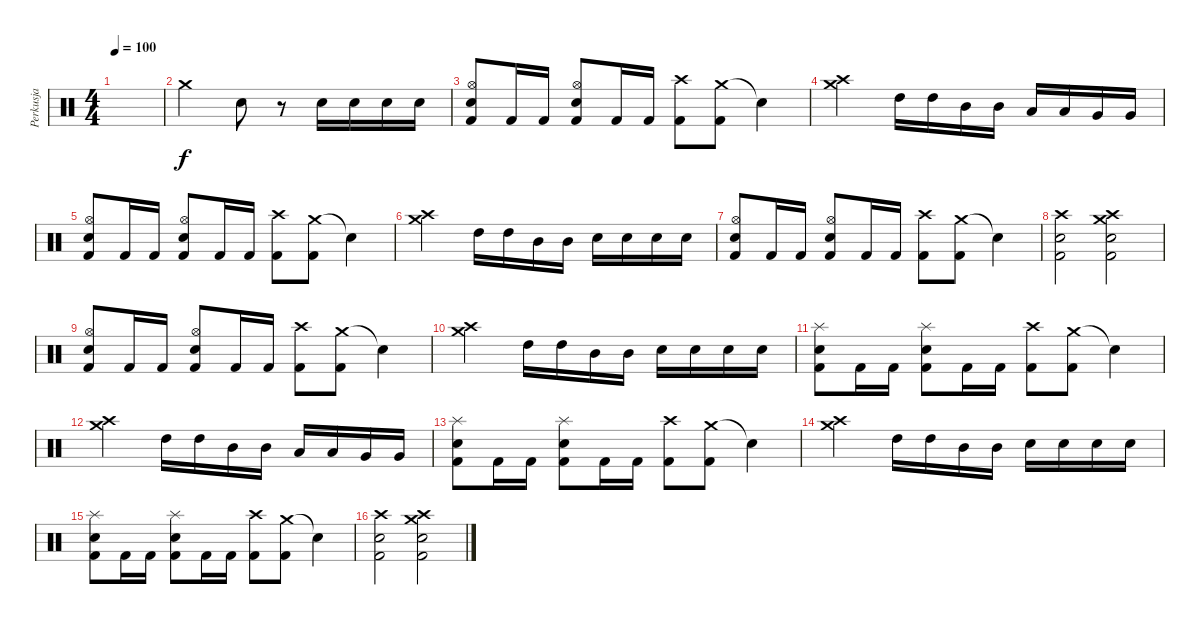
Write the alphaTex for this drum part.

\track ("Perkusja" "Perkusja") {instrument percussion}
\staff {score}
\articulation defaults
\ts (4 4)
\tempo 100
\clef neutral
\ks c
|
"Crash medium (hit)".2 "Electric Snare (hit)".8 r.8 "Electric Snare (hit)".16 "Electric Snare (hit)".16 "Electric Snare (hit)".16 "Electric Snare (hit)".16 |
("Hi-Hat (open)" "Electric Snare (hit)" "Kick (hit) 2").8 "Kick (hit) 2".16 "Kick (hit) 2".16 ("Hi-Hat (open)" "Electric Snare (hit)" "Kick (hit) 2").8 "Kick (hit) 2".16 "Kick (hit) 2".16 ("Crash high (hit)" "Kick (hit) 2").8 ("Crash medium (hit)" "Kick (hit) 2").8 "Snare (hit)"{t}.4 |
("Crash medium (hit)" "Crash high (hit)").2 "High Tom (hit)".16 "High Tom (hit)".16 "Mid Tom (hit)".16 "Mid Tom (hit)".16 "Low Tom (hit)".16 "Low Tom (hit)".16 "Very Low Tom (hit)".16 "Very Low Tom (hit)".16 |
("Hi-Hat (open)" "Electric Snare (hit)" "Kick (hit) 2").8 "Kick (hit) 2".16 "Kick (hit) 2".16 ("Hi-Hat (open)" "Electric Snare (hit)" "Kick (hit) 2").8 "Kick (hit) 2".16 "Kick (hit) 2".16 ("Crash high (hit)" "Kick (hit) 2").8 ("Crash medium (hit)" "Kick (hit) 2").8 "Snare (hit)"{t}.4 |
("Crash medium (hit)" "Crash high (hit)").2 "High Tom (hit)".16 "High Tom (hit)".16 "Mid Tom (hit)".16 "Mid Tom (hit)".16 "Electric Snare (hit)".16 "Electric Snare (hit)".16 "Electric Snare (hit)".16 "Electric Snare (hit)".16 |
("Hi-Hat (open)" "Electric Snare (hit)" "Kick (hit) 2").8 "Kick (hit) 2".16 "Kick (hit) 2".16 ("Hi-Hat (open)" "Electric Snare (hit)" "Kick (hit) 2").8 "Kick (hit) 2".16 "Kick (hit) 2".16 ("Crash high (hit)" "Kick (hit) 2").8 ("Crash medium (hit)" "Kick (hit) 2").8 "Snare (hit)"{t}.4 |
("Crash high (hit)" "Kick (hit) 2" "Electric Snare (hit)").2 ("Crash medium (hit)" "Crash high (hit)" "Electric Snare (hit)" "Kick (hit) 2").2 |
("Hi-Hat (open)" "Electric Snare (hit)" "Kick (hit) 2").8 "Kick (hit) 2".16 "Kick (hit) 2".16 ("Hi-Hat (open)" "Electric Snare (hit)" "Kick (hit) 2").8 "Kick (hit) 2".16 "Kick (hit) 2".16 ("Crash high (hit)" "Kick (hit) 2").8 ("Crash medium (hit)" "Kick (hit) 2").8 "Snare (hit)"{t}.4 |
("Crash medium (hit)" "Crash high (hit)").2 "High Tom (hit)".16 "High Tom (hit)".16 "Mid Tom (hit)".16 "Mid Tom (hit)".16 "Electric Snare (hit)".16 "Electric Snare (hit)".16 "Electric Snare (hit)".16 "Electric Snare (hit)".16 |
("Splash (hit)" "Electric Snare (hit)" "Kick (hit) 2").8 "Kick (hit) 2".16 "Kick (hit) 2".16 ("Splash (hit)" "Electric Snare (hit)" "Kick (hit) 2").8 "Kick (hit) 2".16 "Kick (hit) 2".16 ("Crash high (hit)" "Kick (hit) 2").8 ("Crash medium (hit)" "Kick (hit) 2").8 "Snare (hit)"{t}.4 |
("Crash medium (hit)" "Crash high (hit)").2 "High Tom (hit)".16 "High Tom (hit)".16 "Mid Tom (hit)".16 "Mid Tom (hit)".16 "Low Tom (hit)".16 "Low Tom (hit)".16 "Very Low Tom (hit)".16 "Very Low Tom (hit)".16 |
("Splash (hit)" "Electric Snare (hit)" "Kick (hit) 2").8 "Kick (hit) 2".16 "Kick (hit) 2".16 ("Splash (hit)" "Electric Snare (hit)" "Kick (hit) 2").8 "Kick (hit) 2".16 "Kick (hit) 2".16 ("Crash high (hit)" "Kick (hit) 2").8 ("Crash medium (hit)" "Kick (hit) 2").8 "Snare (hit)"{t}.4 |
("Crash medium (hit)" "Crash high (hit)").2 "High Tom (hit)".16 "High Tom (hit)".16 "Mid Tom (hit)".16 "Mid Tom (hit)".16 "Electric Snare (hit)".16 "Electric Snare (hit)".16 "Electric Snare (hit)".16 "Electric Snare (hit)".16 |
("Splash (hit)" "Electric Snare (hit)" "Kick (hit) 2").8 "Kick (hit) 2".16 "Kick (hit) 2".16 ("Splash (hit)" "Electric Snare (hit)" "Kick (hit) 2").8 "Kick (hit) 2".16 "Kick (hit) 2".16 ("Crash high (hit)" "Kick (hit) 2").8 ("Crash medium (hit)" "Kick (hit) 2").8 "Snare (hit)"{t}.4 |
("Crash high (hit)" "Kick (hit) 2" "Electric Snare (hit)").2 ("Crash medium (hit)" "Crash high (hit)" "Electric Snare (hit)" "Kick (hit) 2").2
